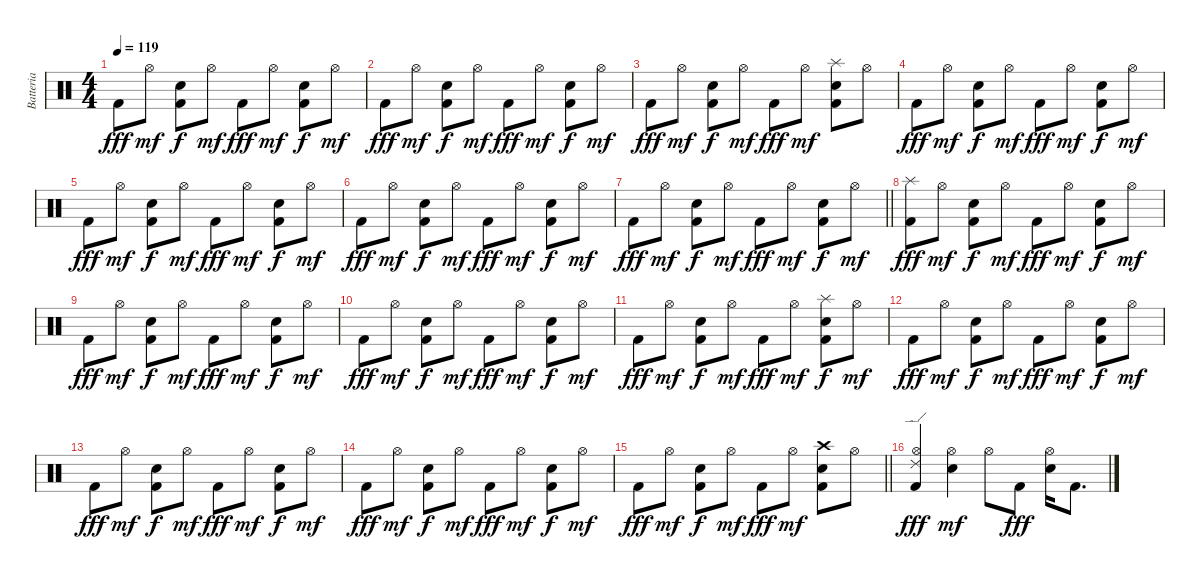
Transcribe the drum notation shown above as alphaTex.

\track ("Batteria" "Batteria") {instrument percussion}
\staff {score}
\articulation defaults
\ts (4 4)
\tempo 119
\clef neutral
\ks c "Kick (hit) 2".8{dy fff} "Hi-Hat (open)".8{dy mf}
("Kick (hit) 2" "Electric Snare (hit)").8{dy f} "Hi-Hat (open)".8{dy mf} "Kick (hit) 2".8{dy fff} "Hi-Hat (open)".8{dy mf} ("Kick (hit) 2" "Electric Snare (hit)").8{dy f} "Hi-Hat (open)".8{dy mf} |
"Kick (hit) 2".8{dy fff} "Hi-Hat (open)".8{dy mf} ("Kick (hit) 2" "Electric Snare (hit)").8{dy f} "Hi-Hat (open)".8{dy mf} "Kick (hit) 2".8{dy fff} "Hi-Hat (open)".8{dy mf} ("Kick (hit) 2" "Electric Snare (hit)").8{dy f} "Hi-Hat (open)".8{dy mf} |
"Kick (hit) 2".8{dy fff} "Hi-Hat (open)".8{dy mf} ("Kick (hit) 2" "Electric Snare (hit)").8{dy f} "Hi-Hat (open)".8{dy mf} "Kick (hit) 2".8{dy fff} "Hi-Hat (open)".8{dy mf} ("Splash (hit)" "Kick (hit) 2" "Electric Snare (hit)").8 "Hi-Hat (open)".8 |
"Kick (hit) 2".8{dy fff} "Hi-Hat (open)".8{dy mf} ("Kick (hit) 2" "Electric Snare (hit)").8{dy f} "Hi-Hat (open)".8{dy mf} "Kick (hit) 2".8{dy fff} "Hi-Hat (open)".8{dy mf} ("Kick (hit) 2" "Electric Snare (hit)").8{dy f} "Hi-Hat (open)".8{dy mf} |
"Kick (hit) 2".8{dy fff} "Hi-Hat (open)".8{dy mf} ("Kick (hit) 2" "Electric Snare (hit)").8{dy f} "Hi-Hat (open)".8{dy mf} "Kick (hit) 2".8{dy fff} "Hi-Hat (open)".8{dy mf} ("Kick (hit) 2" "Electric Snare (hit)").8{dy f} "Hi-Hat (open)".8{dy mf} |
"Kick (hit) 2".8{dy fff} "Hi-Hat (open)".8{dy mf} ("Kick (hit) 2" "Electric Snare (hit)").8{dy f} "Hi-Hat (open)".8{dy mf} "Kick (hit) 2".8{dy fff} "Hi-Hat (open)".8{dy mf} ("Kick (hit) 2" "Electric Snare (hit)").8{dy f} "Hi-Hat (open)".8{dy mf} |
\barLineRight lightlight "Kick (hit) 2".8{dy fff} "Hi-Hat (open)".8{dy mf}
("Kick (hit) 2" "Electric Snare (hit)").8{dy f} "Hi-Hat (open)".8{dy mf} "Kick (hit) 2".8{dy fff} "Hi-Hat (open)".8{dy mf} ("Kick (hit) 2" "Electric Snare (hit)").8{dy f} "Hi-Hat (open)".8{dy mf} |
("Splash (hit)" "Kick (hit) 2").8{dy fff} "Hi-Hat (open)".8{dy mf} ("Kick (hit) 2" "Electric Snare (hit)").8{dy f} "Hi-Hat (open)".8{dy mf} "Kick (hit) 2".8{dy fff} "Hi-Hat (open)".8{dy mf} ("Kick (hit) 2" "Electric Snare (hit)").8{dy f} "Hi-Hat (open)".8{dy mf} |
"Kick (hit) 2".8{dy fff} "Hi-Hat (open)".8{dy mf} ("Kick (hit) 2" "Electric Snare (hit)").8{dy f} "Hi-Hat (open)".8{dy mf} "Kick (hit) 2".8{dy fff} "Hi-Hat (open)".8{dy mf} ("Kick (hit) 2" "Electric Snare (hit)").8{dy f} "Hi-Hat (open)".8{dy mf} |
"Kick (hit) 2".8{dy fff} "Hi-Hat (open)".8{dy mf} ("Kick (hit) 2" "Electric Snare (hit)").8{dy f} "Hi-Hat (open)".8{dy mf} "Kick (hit) 2".8{dy fff} "Hi-Hat (open)".8{dy mf} ("Kick (hit) 2" "Electric Snare (hit)").8{dy f} "Hi-Hat (open)".8{dy mf} |
"Kick (hit) 2".8{dy fff} "Hi-Hat (open)".8{dy mf} ("Kick (hit) 2" "Electric Snare (hit)").8{dy f} "Hi-Hat (open)".8{dy mf} "Kick (hit) 2".8{dy fff} "Hi-Hat (open)".8{dy mf} ("Splash (hit)" "Kick (hit) 2" "Electric Snare (hit)").8{dy f} "Hi-Hat (open)".8{dy mf} |
"Kick (hit) 2".8{dy fff} "Hi-Hat (open)".8{dy mf} ("Kick (hit) 2" "Electric Snare (hit)").8{dy f} "Hi-Hat (open)".8{dy mf} "Kick (hit) 2".8{dy fff} "Hi-Hat (open)".8{dy mf} ("Kick (hit) 2" "Electric Snare (hit)").8{dy f} "Hi-Hat (open)".8{dy mf} |
"Kick (hit) 2".8{dy fff} "Hi-Hat (open)".8{dy mf} ("Kick (hit) 2" "Electric Snare (hit)").8{dy f} "Hi-Hat (open)".8{dy mf} "Kick (hit) 2".8{dy fff} "Hi-Hat (open)".8{dy mf} ("Kick (hit) 2" "Electric Snare (hit)").8{dy f} "Hi-Hat (open)".8{dy mf} |
"Kick (hit) 2".8{dy fff} "Hi-Hat (open)".8{dy mf} ("Kick (hit) 2" "Electric Snare (hit)").8{dy f} "Hi-Hat (open)".8{dy mf} "Kick (hit) 2".8{dy fff} "Hi-Hat (open)".8{dy mf} ("Kick (hit) 2" "Electric Snare (hit)").8{dy f} "Hi-Hat (open)".8{dy mf} |
\barLineRight lightlight "Kick (hit) 2".8{dy fff} "Hi-Hat (open)".8{dy mf}
("Kick (hit) 2" "Electric Snare (hit)").8{dy f} "Hi-Hat (open)".8{dy mf} "Kick (hit) 2".8{dy fff} "Hi-Hat (open)".8{dy mf} ("Crash high (hit)" "Kick (hit) 2" "Electric Snare (hit)").8 "Hi-Hat (open)".8 |
("Ride (edge) 2" "Hi-Hat (open)" "Kick (hit) 2").4{dy fff} ("Hi-Hat (open)" "Electric Snare (hit)").4{dy mf} "Hi-Hat (open)".8 "Kick (hit) 2".8{dy fff} ("Hi-Hat (open)" "Electric Snare (hit)").16 "Kick (hit) 2".8{d}
